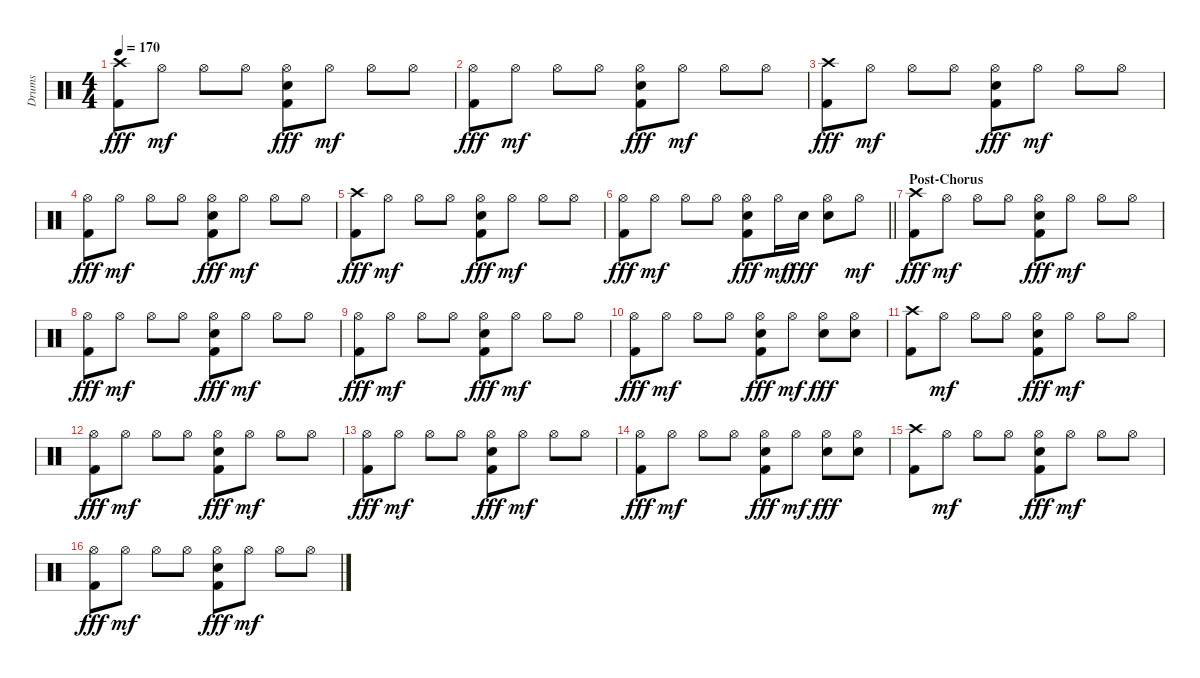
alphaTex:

\track ("Drums" "Drums") {instrument percussion}
\staff {score}
\articulation defaults
\ts (4 4)
\tempo 170
\clef neutral
\ks c
("Crash high (hit)" "Kick (hit) 2").8{dy fff} "Hi-Hat (open)".8{dy mf} "Hi-Hat (open)".8 "Hi-Hat (open)".8 ("Hi-Hat (open)" "Snare (hit) 2" "Kick (hit) 2").8{dy fff} "Hi-Hat (open)".8{dy mf} "Hi-Hat (open)".8 "Hi-Hat (open)".8 |
("Hi-Hat (open)" "Kick (hit) 2").8{dy fff} "Hi-Hat (open)".8{dy mf} "Hi-Hat (open)".8 "Hi-Hat (open)".8 ("Hi-Hat (open)" "Snare (hit) 2" "Kick (hit) 2").8{dy fff} "Hi-Hat (open)".8{dy mf} "Hi-Hat (open)".8 "Hi-Hat (open)".8 |
("Crash high (hit)" "Kick (hit) 2").8{dy fff} "Hi-Hat (open)".8{dy mf} "Hi-Hat (open)".8 "Hi-Hat (open)".8 ("Hi-Hat (open)" "Snare (hit) 2" "Kick (hit) 2").8{dy fff} "Hi-Hat (open)".8{dy mf} "Hi-Hat (open)".8 "Hi-Hat (open)".8 |
("Hi-Hat (open)" "Kick (hit) 2").8{dy fff} "Hi-Hat (open)".8{dy mf} "Hi-Hat (open)".8 "Hi-Hat (open)".8 ("Hi-Hat (open)" "Snare (hit) 2" "Kick (hit) 2").8{dy fff} "Hi-Hat (open)".8{dy mf} "Hi-Hat (open)".8 "Hi-Hat (open)".8 |
("Crash high (hit)" "Kick (hit) 2").8{dy fff} "Hi-Hat (open)".8{dy mf} "Hi-Hat (open)".8 "Hi-Hat (open)".8 ("Hi-Hat (open)" "Snare (hit) 2" "Kick (hit) 2").8{dy fff} "Hi-Hat (open)".8{dy mf} "Hi-Hat (open)".8 "Hi-Hat (open)".8 |
\barLineRight lightlight
("Hi-Hat (open)" "Kick (hit) 2").8{dy fff} "Hi-Hat (open)".8{dy mf} "Hi-Hat (open)".8 "Hi-Hat (open)".8 ("Hi-Hat (open)" "Snare (hit) 2" "Kick (hit) 2").8{dy fff} "Hi-Hat (open)".16{dy mf} "Snare (hit) 2".16{dy fff} ("Hi-Hat (open)" "Snare (hit) 2").8 "Hi-Hat (open)".8{dy mf} |
\section ("" "Post-Chorus")
("Crash high (hit)" "Kick (hit) 2").8{dy fff} "Hi-Hat (open)".8{dy mf} "Hi-Hat (open)".8 "Hi-Hat (open)".8 ("Hi-Hat (open)" "Snare (hit) 2" "Kick (hit) 2").8{dy fff} "Hi-Hat (open)".8{dy mf} "Hi-Hat (open)".8 "Hi-Hat (open)".8 |
("Hi-Hat (open)" "Kick (hit) 2").8{dy fff} "Hi-Hat (open)".8{dy mf} "Hi-Hat (open)".8 "Hi-Hat (open)".8 ("Hi-Hat (open)" "Snare (hit) 2" "Kick (hit) 2").8{dy fff} "Hi-Hat (open)".8{dy mf} "Hi-Hat (open)".8 "Hi-Hat (open)".8 |
("Hi-Hat (open)" "Kick (hit) 2").8{dy fff} "Hi-Hat (open)".8{dy mf} "Hi-Hat (open)".8 "Hi-Hat (open)".8 ("Hi-Hat (open)" "Snare (hit) 2" "Kick (hit) 2").8{dy fff} "Hi-Hat (open)".8{dy mf} "Hi-Hat (open)".8 "Hi-Hat (open)".8 |
("Hi-Hat (open)" "Kick (hit) 2").8{dy fff} "Hi-Hat (open)".8{dy mf} "Hi-Hat (open)".8 "Hi-Hat (open)".8 ("Hi-Hat (open)" "Snare (hit) 2" "Kick (hit) 2").8{dy fff} "Hi-Hat (open)".8{dy mf} ("Hi-Hat (open)" "Snare (hit) 2").8{dy fff} ("Hi-Hat (open)" "Snare (hit) 2").8 |
("Crash high (hit)" "Kick (hit) 2").8 "Hi-Hat (open)".8{dy mf} "Hi-Hat (open)".8 "Hi-Hat (open)".8 ("Hi-Hat (open)" "Snare (hit) 2" "Kick (hit) 2").8{dy fff} "Hi-Hat (open)".8{dy mf} "Hi-Hat (open)".8 "Hi-Hat (open)".8 |
("Hi-Hat (open)" "Kick (hit) 2").8{dy fff} "Hi-Hat (open)".8{dy mf} "Hi-Hat (open)".8 "Hi-Hat (open)".8 ("Hi-Hat (open)" "Snare (hit) 2" "Kick (hit) 2").8{dy fff} "Hi-Hat (open)".8{dy mf} "Hi-Hat (open)".8 "Hi-Hat (open)".8 |
("Hi-Hat (open)" "Kick (hit) 2").8{dy fff} "Hi-Hat (open)".8{dy mf} "Hi-Hat (open)".8 "Hi-Hat (open)".8 ("Hi-Hat (open)" "Snare (hit) 2" "Kick (hit) 2").8{dy fff} "Hi-Hat (open)".8{dy mf} "Hi-Hat (open)".8 "Hi-Hat (open)".8 |
("Hi-Hat (open)" "Kick (hit) 2").8{dy fff} "Hi-Hat (open)".8{dy mf} "Hi-Hat (open)".8 "Hi-Hat (open)".8 ("Hi-Hat (open)" "Snare (hit) 2" "Kick (hit) 2").8{dy fff} "Hi-Hat (open)".8{dy mf} ("Hi-Hat (open)" "Snare (hit) 2").8{dy fff} ("Hi-Hat (open)" "Snare (hit) 2").8 |
("Crash high (hit)" "Kick (hit) 2").8 "Hi-Hat (open)".8{dy mf} "Hi-Hat (open)".8 "Hi-Hat (open)".8 ("Hi-Hat (open)" "Snare (hit) 2" "Kick (hit) 2").8{dy fff} "Hi-Hat (open)".8{dy mf} "Hi-Hat (open)".8 "Hi-Hat (open)".8 |
("Hi-Hat (open)" "Kick (hit) 2").8{dy fff} "Hi-Hat (open)".8{dy mf} "Hi-Hat (open)".8 "Hi-Hat (open)".8 ("Hi-Hat (open)" "Snare (hit) 2" "Kick (hit) 2").8{dy fff} "Hi-Hat (open)".8{dy mf} "Hi-Hat (open)".8 "Hi-Hat (open)".8
